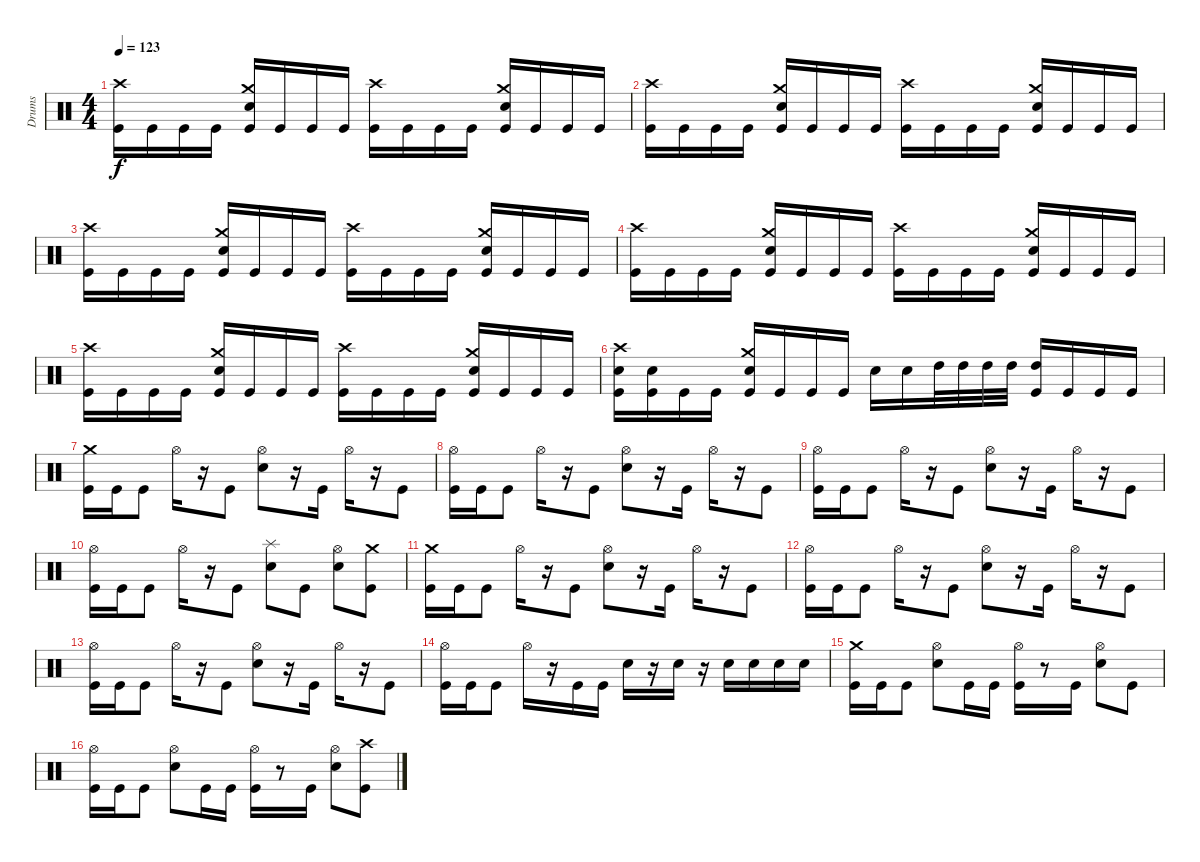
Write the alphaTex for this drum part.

\track ("Drums" "Drums") {instrument percussion}
\staff {score}
\articulation defaults
\ts (4 4)
\tempo 123
\clef neutral
\ks c
("Crash high (hit)" "Kick (hit)").16{dy f} "Kick (hit)".16 "Kick (hit)".16 "Kick (hit)".16 ("Crash medium (hit)" "Electric Snare (hit)" "Kick (hit)").16 "Kick (hit)".16 "Kick (hit)".16 "Kick (hit)".16 ("Crash high (hit)" "Kick (hit)").16 "Kick (hit)".16 "Kick (hit)".16 "Kick (hit)".16 ("Crash medium (hit)" "Electric Snare (hit)" "Kick (hit)").16 "Kick (hit)".16 "Kick (hit)".16 "Kick (hit)".16 |
("Crash high (hit)" "Kick (hit)").16 "Kick (hit)".16 "Kick (hit)".16 "Kick (hit)".16 ("Crash medium (hit)" "Electric Snare (hit)" "Kick (hit)").16 "Kick (hit)".16 "Kick (hit)".16 "Kick (hit)".16 ("Crash high (hit)" "Kick (hit)").16 "Kick (hit)".16 "Kick (hit)".16 "Kick (hit)".16 ("Crash medium (hit)" "Electric Snare (hit)" "Kick (hit)").16 "Kick (hit)".16 "Kick (hit)".16 "Kick (hit)".16 |
("Crash high (hit)" "Kick (hit)").16 "Kick (hit)".16 "Kick (hit)".16 "Kick (hit)".16 ("Crash medium (hit)" "Electric Snare (hit)" "Kick (hit)").16 "Kick (hit)".16 "Kick (hit)".16 "Kick (hit)".16 ("Crash high (hit)" "Kick (hit)").16 "Kick (hit)".16 "Kick (hit)".16 "Kick (hit)".16 ("Crash medium (hit)" "Electric Snare (hit)" "Kick (hit)").16 "Kick (hit)".16 "Kick (hit)".16 "Kick (hit)".16 |
("Crash high (hit)" "Kick (hit)").16 "Kick (hit)".16 "Kick (hit)".16 "Kick (hit)".16 ("Crash medium (hit)" "Electric Snare (hit)" "Kick (hit)").16 "Kick (hit)".16 "Kick (hit)".16 "Kick (hit)".16 ("Crash high (hit)" "Kick (hit)").16 "Kick (hit)".16 "Kick (hit)".16 "Kick (hit)".16 ("Crash medium (hit)" "Electric Snare (hit)" "Kick (hit)").16 "Kick (hit)".16 "Kick (hit)".16 "Kick (hit)".16 |
("Crash high (hit)" "Kick (hit)").16 "Kick (hit)".16 "Kick (hit)".16 "Kick (hit)".16 ("Crash medium (hit)" "Electric Snare (hit)" "Kick (hit)").16 "Kick (hit)".16 "Kick (hit)".16 "Kick (hit)".16 ("Crash high (hit)" "Kick (hit)").16 "Kick (hit)".16 "Kick (hit)".16 "Kick (hit)".16 ("Crash medium (hit)" "Electric Snare (hit)" "Kick (hit)").16 "Kick (hit)".16 "Kick (hit)".16 "Kick (hit)".16 |
("Crash high (hit)" "Electric Snare (hit)" "Kick (hit)").16 ("Electric Snare (hit)" "Kick (hit)").16 "Kick (hit)".16 "Kick (hit)".16 ("Crash medium (hit)" "Electric Snare (hit)" "Kick (hit)").16 "Kick (hit)".16 "Kick (hit)".16 "Kick (hit)".16 "Electric Snare (hit)".16 "Electric Snare (hit)".16 "High Tom (hit)".32 "High Tom (hit)".32 "High Tom (hit)".32 "High Tom (hit)".32 ("High Tom (hit)" "Kick (hit)").16 "Kick (hit)".16 "Kick (hit)".16 "Kick (hit)".16 |
("Crash medium (hit)" "Kick (hit)").16 "Kick (hit)".16 "Kick (hit)".8 "Hi-Hat (open)".16 r.16 "Kick (hit)".8 ("Hi-Hat (open)" "Electric Snare (hit)").8 r.16 "Kick (hit)".16 "Hi-Hat (open)".16 r.16 "Kick (hit)".8 |
("Hi-Hat (open)" "Kick (hit)").16 "Kick (hit)".16 "Kick (hit)".8 "Hi-Hat (open)".16 r.16 "Kick (hit)".8 ("Hi-Hat (open)" "Electric Snare (hit)").8 r.16 "Kick (hit)".16 "Hi-Hat (open)".16 r.16 "Kick (hit)".8 |
("Hi-Hat (open)" "Kick (hit)").16 "Kick (hit)".16 "Kick (hit)".8 "Hi-Hat (open)".16 r.16 "Kick (hit)".8 ("Hi-Hat (open)" "Electric Snare (hit)").8 r.16 "Kick (hit)".16 "Hi-Hat (open)".16 r.16 "Kick (hit)".8 |
("Hi-Hat (open)" "Kick (hit)").16 "Kick (hit)".16 "Kick (hit)".8 "Hi-Hat (open)".16 r.16 "Kick (hit)".8 ("Splash (hit)" "Electric Snare (hit)").8 "Kick (hit)".8 ("Hi-Hat (open)" "Electric Snare (hit)").8 ("Crash medium (hit)" "Kick (hit)").8 |
("Crash medium (hit)" "Kick (hit)").16 "Kick (hit)".16 "Kick (hit)".8 "Hi-Hat (open)".16 r.16 "Kick (hit)".8 ("Hi-Hat (open)" "Electric Snare (hit)").8 r.16 "Kick (hit)".16 "Hi-Hat (open)".16 r.16 "Kick (hit)".8 |
("Hi-Hat (open)" "Kick (hit)").16 "Kick (hit)".16 "Kick (hit)".8 "Hi-Hat (open)".16 r.16 "Kick (hit)".8 ("Hi-Hat (open)" "Electric Snare (hit)").8 r.16 "Kick (hit)".16 "Hi-Hat (open)".16 r.16 "Kick (hit)".8 |
("Hi-Hat (open)" "Kick (hit)").16 "Kick (hit)".16 "Kick (hit)".8 "Hi-Hat (open)".16 r.16 "Kick (hit)".8 ("Hi-Hat (open)" "Electric Snare (hit)").8 r.16 "Kick (hit)".16 "Hi-Hat (open)".16 r.16 "Kick (hit)".8 |
("Hi-Hat (open)" "Kick (hit)").16 "Kick (hit)".16 "Kick (hit)".8 "Hi-Hat (open)".16 r.16 "Kick (hit)".16 "Kick (hit)".16 "Electric Snare (hit)".16 r.16 "Electric Snare (hit)".16 r.16 "Electric Snare (hit)".16 "Electric Snare (hit)".16 "Electric Snare (hit)".16 "Electric Snare (hit)".16 |
("Crash medium (hit)" "Kick (hit)").16 "Kick (hit)".16 "Kick (hit)".8 ("Hi-Hat (open)" "Electric Snare (hit)").8 "Kick (hit)".16 "Kick (hit)".16 ("Hi-Hat (open)" "Kick (hit)").16 r.8 "Kick (hit)".16 ("Hi-Hat (open)" "Electric Snare (hit)").8 "Kick (hit)".8 |
("Hi-Hat (open)" "Kick (hit)").16 "Kick (hit)".16 "Kick (hit)".8 ("Hi-Hat (open)" "Electric Snare (hit)").8 "Kick (hit)".16 "Kick (hit)".16 ("Hi-Hat (open)" "Kick (hit)").16 r.8 "Kick (hit)".16 ("Hi-Hat (open)" "Electric Snare (hit)").8 ("Crash high (hit)" "Kick (hit)").8
